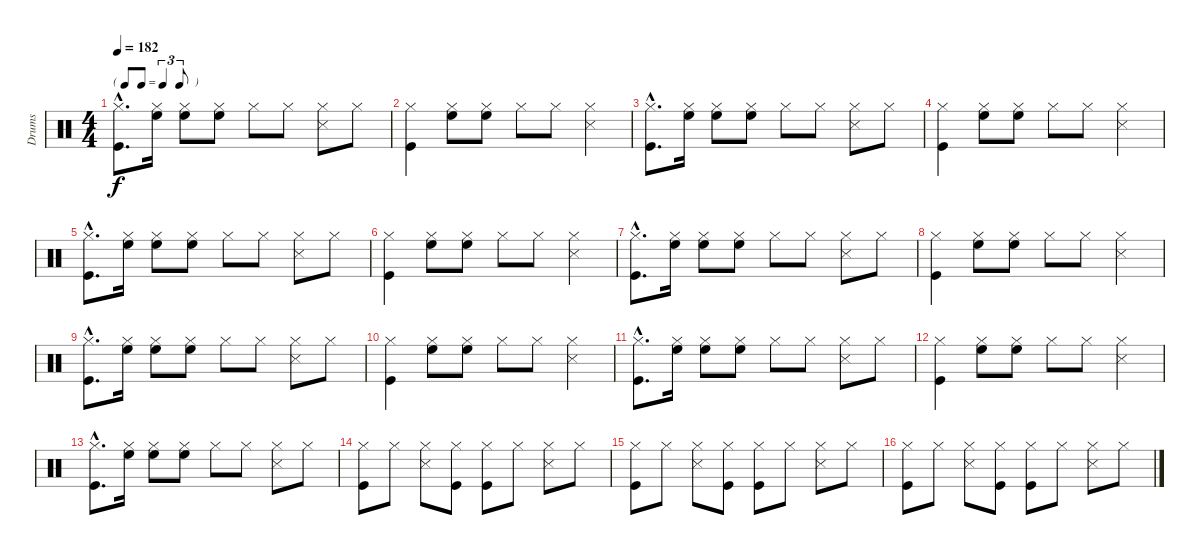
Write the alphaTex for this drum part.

\track ("Drums" "Drums") {instrument percussion}
\staff {score}
\articulation defaults
\ts (4 4)
\tf triplet8th
\tempo 182
\clef neutral
\ks c
("Hi-Hat (closed)"{hac} "Kick (hit)"{hac}).8{d dy f} ("Hi-Hat (closed)" "High Floor Tom (hit)").16 ("Hi-Hat (closed)" "High Floor Tom (hit)").8 ("Hi-Hat (closed)" "High Floor Tom (hit)").8 "Hi-Hat (closed)".8 "Hi-Hat (closed)".8 ("Hi-Hat (closed)" "Snare (side stick) 3").8 "Hi-Hat (closed)".8 |
("Hi-Hat (closed)" "Kick (hit)").4 ("Hi-Hat (closed)" "High Floor Tom (hit)").8 ("Hi-Hat (closed)" "High Floor Tom (hit)").8 "Hi-Hat (closed)".8 "Hi-Hat (closed)".8 ("Hi-Hat (closed)" "Snare (side stick) 3").4 |
("Hi-Hat (closed)"{hac} "Kick (hit)"{hac}).8{d} ("Hi-Hat (closed)" "High Floor Tom (hit)").16 ("Hi-Hat (closed)" "High Floor Tom (hit)").8 ("Hi-Hat (closed)" "High Floor Tom (hit)").8 "Hi-Hat (closed)".8 "Hi-Hat (closed)".8 ("Hi-Hat (closed)" "Snare (side stick) 3").8 "Hi-Hat (closed)".8 |
("Hi-Hat (closed)" "Kick (hit)").4 ("Hi-Hat (closed)" "High Floor Tom (hit)").8 ("Hi-Hat (closed)" "High Floor Tom (hit)").8 "Hi-Hat (closed)".8 "Hi-Hat (closed)".8 ("Hi-Hat (closed)" "Snare (side stick) 3").4 |
("Hi-Hat (closed)"{hac} "Kick (hit)"{hac}).8{d} ("Hi-Hat (closed)" "High Floor Tom (hit)").16 ("Hi-Hat (closed)" "High Floor Tom (hit)").8 ("Hi-Hat (closed)" "High Floor Tom (hit)").8 "Hi-Hat (closed)".8 "Hi-Hat (closed)".8 ("Hi-Hat (closed)" "Snare (side stick) 3").8 "Hi-Hat (closed)".8 |
("Hi-Hat (closed)" "Kick (hit)").4 ("Hi-Hat (closed)" "High Floor Tom (hit)").8 ("Hi-Hat (closed)" "High Floor Tom (hit)").8 "Hi-Hat (closed)".8 "Hi-Hat (closed)".8 ("Hi-Hat (closed)" "Snare (side stick) 3").4 |
("Hi-Hat (closed)"{hac} "Kick (hit)"{hac}).8{d} ("Hi-Hat (closed)" "High Floor Tom (hit)").16 ("Hi-Hat (closed)" "High Floor Tom (hit)").8 ("Hi-Hat (closed)" "High Floor Tom (hit)").8 "Hi-Hat (closed)".8 "Hi-Hat (closed)".8 ("Hi-Hat (closed)" "Snare (side stick) 3").8 "Hi-Hat (closed)".8 |
("Hi-Hat (closed)" "Kick (hit)").4 ("Hi-Hat (closed)" "High Floor Tom (hit)").8 ("Hi-Hat (closed)" "High Floor Tom (hit)").8 "Hi-Hat (closed)".8 "Hi-Hat (closed)".8 ("Hi-Hat (closed)" "Snare (side stick) 3").4 |
("Hi-Hat (closed)"{hac} "Kick (hit)"{hac}).8{d} ("Hi-Hat (closed)" "High Floor Tom (hit)").16 ("Hi-Hat (closed)" "High Floor Tom (hit)").8 ("Hi-Hat (closed)" "High Floor Tom (hit)").8 "Hi-Hat (closed)".8 "Hi-Hat (closed)".8 ("Hi-Hat (closed)" "Snare (side stick) 3").8 "Hi-Hat (closed)".8 |
("Hi-Hat (closed)" "Kick (hit)").4 ("Hi-Hat (closed)" "High Floor Tom (hit)").8 ("Hi-Hat (closed)" "High Floor Tom (hit)").8 "Hi-Hat (closed)".8 "Hi-Hat (closed)".8 ("Hi-Hat (closed)" "Snare (side stick) 3").4 |
("Hi-Hat (closed)"{hac} "Kick (hit)"{hac}).8{d} ("Hi-Hat (closed)" "High Floor Tom (hit)").16 ("Hi-Hat (closed)" "High Floor Tom (hit)").8 ("Hi-Hat (closed)" "High Floor Tom (hit)").8 "Hi-Hat (closed)".8 "Hi-Hat (closed)".8 ("Hi-Hat (closed)" "Snare (side stick) 3").8 "Hi-Hat (closed)".8 |
("Hi-Hat (closed)" "Kick (hit)").4 ("Hi-Hat (closed)" "High Floor Tom (hit)").8 ("Hi-Hat (closed)" "High Floor Tom (hit)").8 "Hi-Hat (closed)".8 "Hi-Hat (closed)".8 ("Hi-Hat (closed)" "Snare (side stick) 3").4 |
("Hi-Hat (closed)"{hac} "Kick (hit)"{hac}).8{d} ("Hi-Hat (closed)" "High Floor Tom (hit)").16 ("Hi-Hat (closed)" "High Floor Tom (hit)").8 ("Hi-Hat (closed)" "High Floor Tom (hit)").8 "Hi-Hat (closed)".8 "Hi-Hat (closed)".8 ("Hi-Hat (closed)" "Snare (side stick) 3").8 "Hi-Hat (closed)".8 |
("Hi-Hat (closed)" "Kick (hit)").8 "Hi-Hat (closed)".8 ("Hi-Hat (closed)" "Snare (side stick) 3").8 ("Hi-Hat (closed)" "Kick (hit)").8 ("Hi-Hat (closed)" "Kick (hit)").8 "Hi-Hat (closed)".8 ("Hi-Hat (closed)" "Snare (side stick) 3").8 "Hi-Hat (closed)".8 |
("Hi-Hat (closed)" "Kick (hit)").8 "Hi-Hat (closed)".8 ("Hi-Hat (closed)" "Snare (side stick) 3").8 ("Hi-Hat (closed)" "Kick (hit)").8 ("Hi-Hat (closed)" "Kick (hit)").8 "Hi-Hat (closed)".8 ("Hi-Hat (closed)" "Snare (side stick) 3").8 "Hi-Hat (closed)".8 |
("Hi-Hat (closed)" "Kick (hit)").8 "Hi-Hat (closed)".8 ("Hi-Hat (closed)" "Snare (side stick) 3").8 ("Hi-Hat (closed)" "Kick (hit)").8 ("Hi-Hat (closed)" "Kick (hit)").8 "Hi-Hat (closed)".8 ("Hi-Hat (closed)" "Snare (side stick) 3").8 "Hi-Hat (closed)".8
